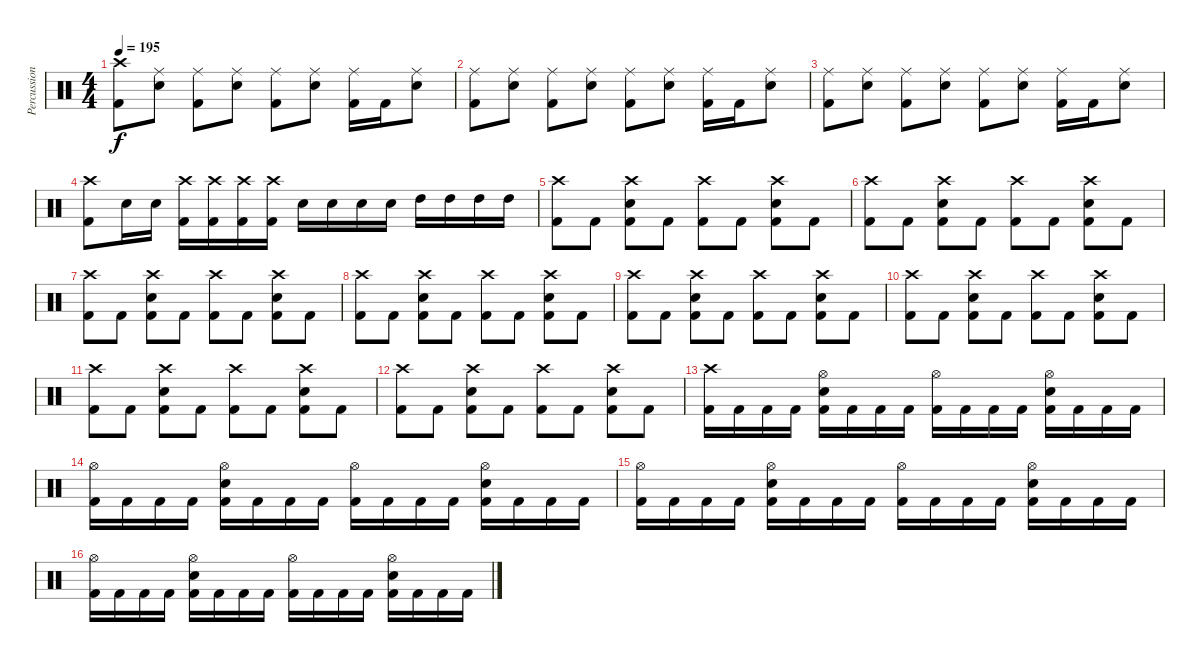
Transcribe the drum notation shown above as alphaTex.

\track ("Percussion" "Percussion") {instrument percussion}
\staff {score}
\articulation defaults
\ts (4 4)
\tempo 195
\clef neutral
\ks c
("Crash high (hit)" "Kick (hit) 2").8{dy f} ("Ride (middle)" "Snare (hit) 2").8 ("Ride (middle)" "Kick (hit) 2").8 ("Ride (middle)" "Snare (hit) 2").8 ("Ride (middle)" "Kick (hit) 2").8 ("Ride (middle)" "Snare (hit) 2").8 ("Ride (middle)" "Kick (hit) 2").16 "Kick (hit) 2".16 ("Ride (middle)" "Snare (hit) 2").8 |
("Ride (middle)" "Kick (hit) 2").8 ("Ride (middle)" "Snare (hit) 2").8 ("Ride (middle)" "Kick (hit) 2").8 ("Ride (middle)" "Snare (hit) 2").8 ("Ride (middle)" "Kick (hit) 2").8 ("Ride (middle)" "Snare (hit) 2").8 ("Ride (middle)" "Kick (hit) 2").16 "Kick (hit) 2".16 ("Ride (middle)" "Snare (hit) 2").8 |
("Ride (middle)" "Kick (hit) 2").8 ("Ride (middle)" "Snare (hit) 2").8 ("Ride (middle)" "Kick (hit) 2").8 ("Ride (middle)" "Snare (hit) 2").8 ("Ride (middle)" "Kick (hit) 2").8 ("Ride (middle)" "Snare (hit) 2").8 ("Ride (middle)" "Kick (hit) 2").16 "Kick (hit) 2".16 ("Ride (middle)" "Snare (hit) 2").8 |
("Crash high (hit)" "Kick (hit) 2").8 "Snare (hit) 2".16 "Snare (hit) 2".16 ("Kick (hit) 2" "Crash high (hit)").16 ("Kick (hit) 2" "Crash high (hit)").16 ("Kick (hit) 2" "Crash high (hit)").16 ("Kick (hit) 2" "Crash high (hit)").16 "Snare (hit) 2".16 "Snare (hit) 2".16 "Snare (hit) 2".16 "Snare (hit) 2".16 "High Tom (hit)".16 "High Tom (hit)".16 "High Tom (hit)".16 "High Tom (hit)".16 |
("Crash high (hit)" "Kick (hit) 2").8 "Kick (hit) 2".8 ("Kick (hit) 2" "Crash high (hit)" "Snare (hit) 2").8 "Kick (hit) 2".8 ("Kick (hit) 2" "Crash high (hit)").8 "Kick (hit) 2".8 ("Kick (hit) 2" "Crash high (hit)" "Snare (hit) 2").8 "Kick (hit) 2".8 |
("Crash high (hit)" "Kick (hit) 2").8 "Kick (hit) 2".8 ("Kick (hit) 2" "Crash high (hit)" "Snare (hit) 2").8 "Kick (hit) 2".8 ("Kick (hit) 2" "Crash high (hit)").8 "Kick (hit) 2".8 ("Kick (hit) 2" "Crash high (hit)" "Snare (hit) 2").8 "Kick (hit) 2".8 |
("Crash high (hit)" "Kick (hit) 2").8 "Kick (hit) 2".8 ("Kick (hit) 2" "Crash high (hit)" "Snare (hit) 2").8 "Kick (hit) 2".8 ("Kick (hit) 2" "Crash high (hit)").8 "Kick (hit) 2".8 ("Kick (hit) 2" "Crash high (hit)" "Snare (hit) 2").8 "Kick (hit) 2".8 |
("Crash high (hit)" "Kick (hit) 2").8 "Kick (hit) 2".8 ("Kick (hit) 2" "Crash high (hit)" "Snare (hit) 2").8 "Kick (hit) 2".8 ("Kick (hit) 2" "Crash high (hit)").8 "Kick (hit) 2".8 ("Kick (hit) 2" "Crash high (hit)" "Snare (hit) 2").8 "Kick (hit) 2".8 |
("Crash high (hit)" "Kick (hit) 2").8 "Kick (hit) 2".8 ("Kick (hit) 2" "Crash high (hit)" "Snare (hit) 2").8 "Kick (hit) 2".8 ("Kick (hit) 2" "Crash high (hit)").8 "Kick (hit) 2".8 ("Kick (hit) 2" "Crash high (hit)" "Snare (hit) 2").8 "Kick (hit) 2".8 |
("Crash high (hit)" "Kick (hit) 2").8 "Kick (hit) 2".8 ("Kick (hit) 2" "Crash high (hit)" "Snare (hit) 2").8 "Kick (hit) 2".8 ("Kick (hit) 2" "Crash high (hit)").8 "Kick (hit) 2".8 ("Kick (hit) 2" "Crash high (hit)" "Snare (hit) 2").8 "Kick (hit) 2".8 |
("Crash high (hit)" "Kick (hit) 2").8 "Kick (hit) 2".8 ("Kick (hit) 2" "Crash high (hit)" "Snare (hit) 2").8 "Kick (hit) 2".8 ("Kick (hit) 2" "Crash high (hit)").8 "Kick (hit) 2".8 ("Kick (hit) 2" "Crash high (hit)" "Snare (hit) 2").8 "Kick (hit) 2".8 |
("Crash high (hit)" "Kick (hit) 2").8 "Kick (hit) 2".8 ("Kick (hit) 2" "Crash high (hit)" "Snare (hit) 2").8 "Kick (hit) 2".8 ("Kick (hit) 2" "Crash high (hit)").8 "Kick (hit) 2".8 ("Kick (hit) 2" "Crash high (hit)" "Snare (hit) 2").8 "Kick (hit) 2".8 |
("Kick (hit) 2" "Crash high (hit)").16 "Kick (hit) 2".16 "Kick (hit) 2".16 "Kick (hit) 2".16 ("Kick (hit) 2" "Hi-Hat (open)" "Snare (hit) 2").16 "Kick (hit) 2".16 "Kick (hit) 2".16 "Kick (hit) 2".16 ("Kick (hit) 2" "Hi-Hat (open)").16 "Kick (hit) 2".16 "Kick (hit) 2".16 "Kick (hit) 2".16 ("Kick (hit) 2" "Hi-Hat (open)" "Snare (hit) 2").16 "Kick (hit) 2".16 "Kick (hit) 2".16 "Kick (hit) 2".16 |
("Kick (hit) 2" "Hi-Hat (open)").16 "Kick (hit) 2".16 "Kick (hit) 2".16 "Kick (hit) 2".16 ("Kick (hit) 2" "Hi-Hat (open)" "Snare (hit) 2").16 "Kick (hit) 2".16 "Kick (hit) 2".16 "Kick (hit) 2".16 ("Kick (hit) 2" "Hi-Hat (open)").16 "Kick (hit) 2".16 "Kick (hit) 2".16 "Kick (hit) 2".16 ("Kick (hit) 2" "Hi-Hat (open)" "Snare (hit) 2").16 "Kick (hit) 2".16 "Kick (hit) 2".16 "Kick (hit) 2".16 |
("Kick (hit) 2" "Hi-Hat (open)").16 "Kick (hit) 2".16 "Kick (hit) 2".16 "Kick (hit) 2".16 ("Kick (hit) 2" "Hi-Hat (open)" "Snare (hit) 2").16 "Kick (hit) 2".16 "Kick (hit) 2".16 "Kick (hit) 2".16 ("Kick (hit) 2" "Hi-Hat (open)").16 "Kick (hit) 2".16 "Kick (hit) 2".16 "Kick (hit) 2".16 ("Kick (hit) 2" "Hi-Hat (open)" "Snare (hit) 2").16 "Kick (hit) 2".16 "Kick (hit) 2".16 "Kick (hit) 2".16 |
("Kick (hit) 2" "Hi-Hat (open)").16 "Kick (hit) 2".16 "Kick (hit) 2".16 "Kick (hit) 2".16 ("Kick (hit) 2" "Hi-Hat (open)" "Snare (hit) 2").16 "Kick (hit) 2".16 "Kick (hit) 2".16 "Kick (hit) 2".16 ("Kick (hit) 2" "Hi-Hat (open)").16 "Kick (hit) 2".16 "Kick (hit) 2".16 "Kick (hit) 2".16 ("Kick (hit) 2" "Hi-Hat (open)" "Snare (hit) 2").16 "Kick (hit) 2".16 "Kick (hit) 2".16 "Kick (hit) 2".16
